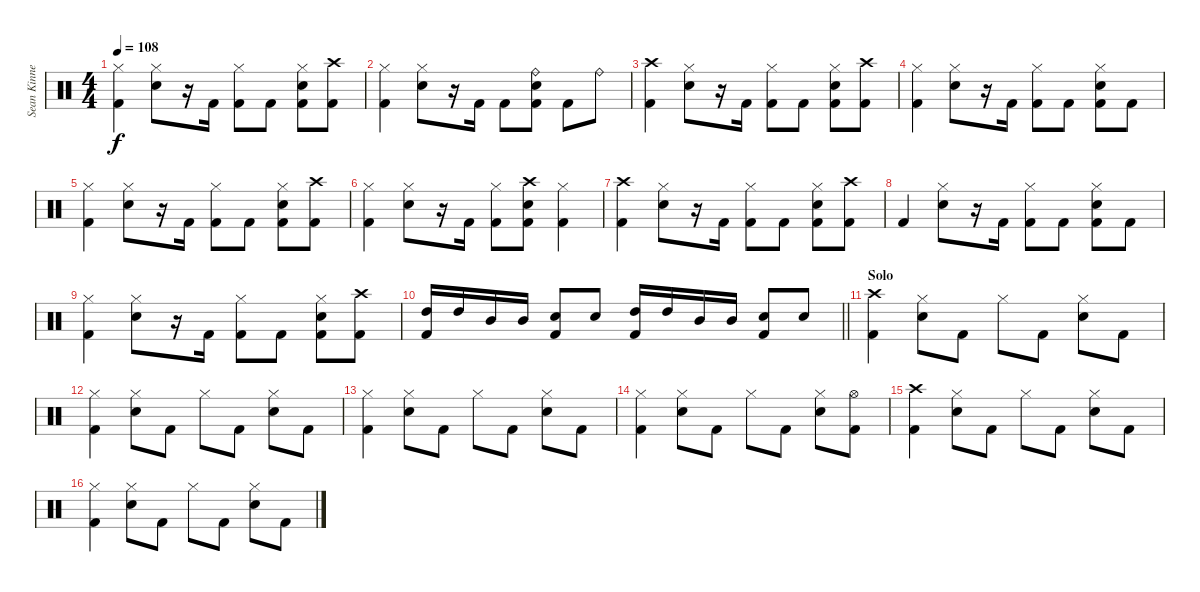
\track ("Sean Kinney- Drums" "Sean Kinne") {instrument percussion}
\staff {score}
\articulation defaults
\ts (4 4)
\tempo 108
\clef neutral
\ks c
("Hi-Hat (closed)" "Kick (hit) 2").4{dy f} ("Hi-Hat (closed)" "Electric Snare (hit)").8 r.16 "Kick (hit) 2".16 ("Hi-Hat (closed)" "Kick (hit) 2").8 "Kick (hit) 2".8 ("Hi-Hat (closed)" "Electric Snare (hit)" "Kick (hit) 2").8 ("Crash high (hit)" "Kick (hit) 2").8 |
("Hi-Hat (closed)" "Kick (hit) 2").4 ("Hi-Hat (closed)" "Electric Snare (hit)").8 r.16 "Kick (hit) 2".16 "Kick (hit) 2".8 ("Ride (bell)" "Electric Snare (hit)" "Kick (hit) 2").8 "Kick (hit) 2".8 "Ride (bell)".8 |
("Crash high (hit)" "Kick (hit) 2").4 ("Hi-Hat (closed)" "Electric Snare (hit)").8 r.16 "Kick (hit) 2".16 ("Hi-Hat (closed)" "Kick (hit) 2").8 "Kick (hit) 2".8 ("Hi-Hat (closed)" "Electric Snare (hit)" "Kick (hit) 2").8 ("Crash high (hit)" "Kick (hit) 2").8 |
("Hi-Hat (closed)" "Kick (hit) 2").4 ("Hi-Hat (closed)" "Electric Snare (hit)").8 r.16 "Kick (hit) 2".16 ("Hi-Hat (closed)" "Kick (hit) 2").8 "Kick (hit) 2".8 ("Hi-Hat (closed)" "Electric Snare (hit)" "Kick (hit) 2").8 "Kick (hit) 2".8 |
("Hi-Hat (closed)" "Kick (hit) 2").4 ("Hi-Hat (closed)" "Electric Snare (hit)").8 r.16 "Kick (hit) 2".16 ("Hi-Hat (closed)" "Kick (hit) 2").8 "Kick (hit) 2".8 ("Hi-Hat (closed)" "Electric Snare (hit)" "Kick (hit) 2").8 ("Crash high (hit)" "Kick (hit) 2").8 |
("Hi-Hat (closed)" "Kick (hit) 2").4 ("Hi-Hat (closed)" "Electric Snare (hit)").8 r.16 "Kick (hit) 2".16 ("Hi-Hat (closed)" "Kick (hit) 2").8 ("Crash high (hit)" "Electric Snare (hit)" "Kick (hit) 2").8 ("Hi-Hat (closed)" "Kick (hit) 2").4 |
("Crash high (hit)" "Kick (hit) 2").4 ("Hi-Hat (closed)" "Electric Snare (hit)").8 r.16 "Kick (hit) 2".16 ("Hi-Hat (closed)" "Kick (hit) 2").8 "Kick (hit) 2".8 ("Hi-Hat (closed)" "Electric Snare (hit)" "Kick (hit) 2").8 ("Crash high (hit)" "Kick (hit) 2").8 |
"Kick (hit) 2".4 ("Hi-Hat (closed)" "Electric Snare (hit)").8 r.16 "Kick (hit) 2".16 ("Hi-Hat (closed)" "Kick (hit) 2").8 "Kick (hit) 2".8 ("Hi-Hat (closed)" "Electric Snare (hit)" "Kick (hit) 2").8 "Kick (hit) 2".8 |
("Hi-Hat (closed)" "Kick (hit) 2").4 ("Hi-Hat (closed)" "Electric Snare (hit)").8 r.16 "Kick (hit) 2".16 ("Hi-Hat (closed)" "Kick (hit) 2").8 "Kick (hit) 2".8 ("Hi-Hat (closed)" "Electric Snare (hit)" "Kick (hit) 2").8 ("Crash high (hit)" "Kick (hit) 2").8 |
\barLineRight lightlight
("High Tom (hit)" "Kick (hit) 2").16 "High Tom (hit)".16 "Mid Tom (hit)".16 "Mid Tom (hit)".16 ("Electric Snare (hit)" "Kick (hit) 2").8 "Electric Snare (hit)".8 ("High Tom (hit)" "Kick (hit) 2").16 "High Tom (hit)".16 "Mid Tom (hit)".16 "Mid Tom (hit)".16 ("Electric Snare (hit)" "Kick (hit) 2").8 "Electric Snare (hit)".8 |
\section ("" "Solo")
("Crash high (hit)" "Kick (hit) 2").4 ("Hi-Hat (closed)" "Electric Snare (hit)").8 "Kick (hit) 2".8 "Hi-Hat (closed)".8 "Kick (hit) 2".8 ("Hi-Hat (closed)" "Electric Snare (hit)").8 "Kick (hit) 2".8 |
("Hi-Hat (closed)" "Kick (hit) 2").4 ("Hi-Hat (closed)" "Electric Snare (hit)").8 "Kick (hit) 2".8 "Hi-Hat (closed)".8 "Kick (hit) 2".8 ("Hi-Hat (closed)" "Electric Snare (hit)").8 "Kick (hit) 2".8 |
("Hi-Hat (closed)" "Kick (hit) 2").4 ("Hi-Hat (closed)" "Electric Snare (hit)").8 "Kick (hit) 2".8 "Hi-Hat (closed)".8 "Kick (hit) 2".8 ("Hi-Hat (closed)" "Electric Snare (hit)").8 "Kick (hit) 2".8 |
("Hi-Hat (closed)" "Kick (hit) 2").4 ("Hi-Hat (closed)" "Electric Snare (hit)").8 "Kick (hit) 2".8 "Hi-Hat (closed)".8 "Kick (hit) 2".8 ("Hi-Hat (closed)" "Electric Snare (hit)").8 ("Hi-Hat (open)" "Kick (hit) 2").8 |
("Crash high (hit)" "Kick (hit) 2").4 ("Hi-Hat (closed)" "Electric Snare (hit)").8 "Kick (hit) 2".8 "Hi-Hat (closed)".8 "Kick (hit) 2".8 ("Hi-Hat (closed)" "Electric Snare (hit)").8 "Kick (hit) 2".8 |
("Hi-Hat (closed)" "Kick (hit) 2").4 ("Hi-Hat (closed)" "Electric Snare (hit)").8 "Kick (hit) 2".8 "Hi-Hat (closed)".8 "Kick (hit) 2".8 ("Hi-Hat (closed)" "Electric Snare (hit)").8 "Kick (hit) 2".8
